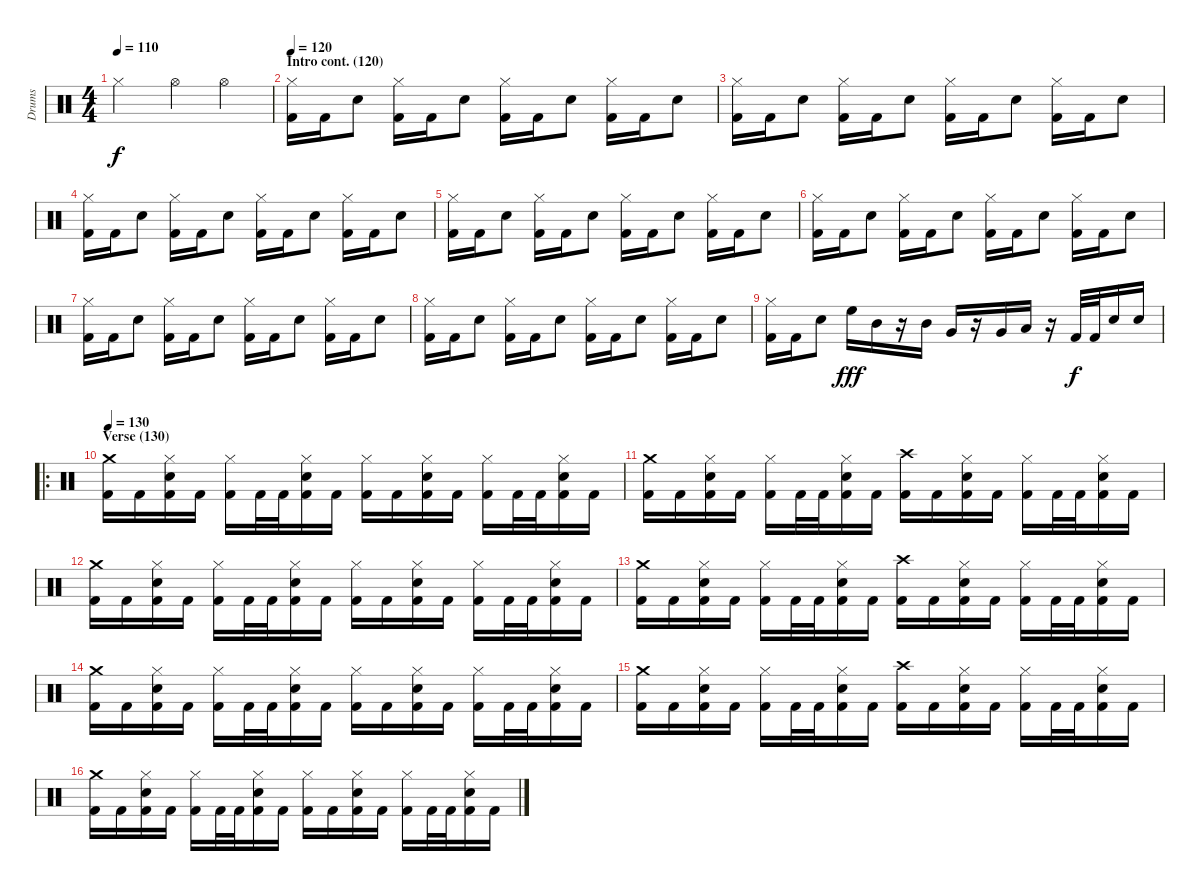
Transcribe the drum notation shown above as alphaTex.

\track ("Drums" "Drums") {instrument percussion}
\staff {score}
\articulation defaults
\ts (4 4)
\tempo 110
\clef neutral
\ks c "Hi-Hat (closed)".2{dy f} "Hi-Hat (open)".4 "Hi-Hat (open)".4
|
\section ("" "Intro cont. (120)")
\tempo 120
("Hi-Hat (closed)" "Kick (hit) 2").16 "Kick (hit) 2".16 "Electric Snare (hit)".8 ("Hi-Hat (closed)" "Kick (hit) 2").16 "Kick (hit) 2".16 "Electric Snare (hit)".8 ("Hi-Hat (closed)" "Kick (hit) 2").16 "Kick (hit) 2".16 "Electric Snare (hit)".8 ("Hi-Hat (closed)" "Kick (hit) 2").16 "Kick (hit) 2".16 "Electric Snare (hit)".8 |
("Hi-Hat (closed)" "Kick (hit) 2").16 "Kick (hit) 2".16 "Electric Snare (hit)".8 ("Hi-Hat (closed)" "Kick (hit) 2").16 "Kick (hit) 2".16 "Electric Snare (hit)".8 ("Hi-Hat (closed)" "Kick (hit) 2").16 "Kick (hit) 2".16 "Electric Snare (hit)".8 ("Hi-Hat (closed)" "Kick (hit) 2").16 "Kick (hit) 2".16 "Electric Snare (hit)".8 |
("Hi-Hat (closed)" "Kick (hit) 2").16 "Kick (hit) 2".16 "Electric Snare (hit)".8 ("Hi-Hat (closed)" "Kick (hit) 2").16 "Kick (hit) 2".16 "Electric Snare (hit)".8 ("Hi-Hat (closed)" "Kick (hit) 2").16 "Kick (hit) 2".16 "Electric Snare (hit)".8 ("Hi-Hat (closed)" "Kick (hit) 2").16 "Kick (hit) 2".16 "Electric Snare (hit)".8 |
("Hi-Hat (closed)" "Kick (hit) 2").16 "Kick (hit) 2".16 "Electric Snare (hit)".8 ("Hi-Hat (closed)" "Kick (hit) 2").16 "Kick (hit) 2".16 "Electric Snare (hit)".8 ("Hi-Hat (closed)" "Kick (hit) 2").16 "Kick (hit) 2".16 "Electric Snare (hit)".8 ("Hi-Hat (closed)" "Kick (hit) 2").16 "Kick (hit) 2".16 "Electric Snare (hit)".8 |
("Hi-Hat (closed)" "Kick (hit) 2").16 "Kick (hit) 2".16 "Electric Snare (hit)".8 ("Hi-Hat (closed)" "Kick (hit) 2").16 "Kick (hit) 2".16 "Electric Snare (hit)".8 ("Hi-Hat (closed)" "Kick (hit) 2").16 "Kick (hit) 2".16 "Electric Snare (hit)".8 ("Hi-Hat (closed)" "Kick (hit) 2").16 "Kick (hit) 2".16 "Electric Snare (hit)".8 |
("Hi-Hat (closed)" "Kick (hit) 2").16 "Kick (hit) 2".16 "Electric Snare (hit)".8 ("Hi-Hat (closed)" "Kick (hit) 2").16 "Kick (hit) 2".16 "Electric Snare (hit)".8 ("Hi-Hat (closed)" "Kick (hit) 2").16 "Kick (hit) 2".16 "Electric Snare (hit)".8 ("Hi-Hat (closed)" "Kick (hit) 2").16 "Kick (hit) 2".16 "Electric Snare (hit)".8 |
("Hi-Hat (closed)" "Kick (hit) 2").16 "Kick (hit) 2".16 "Electric Snare (hit)".8 ("Hi-Hat (closed)" "Kick (hit) 2").16 "Kick (hit) 2".16 "Electric Snare (hit)".8 ("Hi-Hat (closed)" "Kick (hit) 2").16 "Kick (hit) 2".16 "Electric Snare (hit)".8 ("Hi-Hat (closed)" "Kick (hit) 2").16 "Kick (hit) 2".16 "Electric Snare (hit)".8 |
("Hi-Hat (closed)" "Kick (hit) 2").16 "Kick (hit) 2".16 "Electric Snare (hit)".8 "High Floor Tom (hit)".16{dy fff} "Mid Tom (hit)".16 r.16 "Mid Tom (hit)".16 "Very Low Tom (hit)".16 r.16 "Very Low Tom (hit)".16 "Low Floor Tom (hit)".16 r.16 "Kick (hit) 2".32{dy f} "Kick (hit) 2".32 "Electric Snare (hit)".16 "Electric Snare (hit)".16 |
\ro
\section ("" "Verse (130)")
\tempo 130
("Crash medium (hit)" "Kick (hit) 2").16 "Kick (hit) 2".16 ("Hi-Hat (closed)" "Electric Snare (hit)" "Kick (hit) 2").16 "Kick (hit) 2".16 ("Hi-Hat (closed)" "Kick (hit) 2").16 "Kick (hit) 2".32 "Kick (hit) 2".32 ("Hi-Hat (closed)" "Electric Snare (hit)" "Kick (hit) 2").16 "Kick (hit) 2".16 ("Hi-Hat (closed)" "Kick (hit) 2").16 "Kick (hit) 2".16 ("Hi-Hat (closed)" "Electric Snare (hit)" "Kick (hit) 2").16 "Kick (hit) 2".16 ("Hi-Hat (closed)" "Kick (hit) 2").16 "Kick (hit) 2".32 "Kick (hit) 2".32 ("Hi-Hat (closed)" "Electric Snare (hit)" "Kick (hit) 2").16 "Kick (hit) 2".16 |
("Crash medium (hit)" "Kick (hit) 2").16 "Kick (hit) 2".16 ("Hi-Hat (closed)" "Electric Snare (hit)" "Kick (hit) 2").16 "Kick (hit) 2".16 ("Hi-Hat (closed)" "Kick (hit) 2").16 "Kick (hit) 2".32 "Kick (hit) 2".32 ("Hi-Hat (closed)" "Electric Snare (hit)" "Kick (hit) 2").16 "Kick (hit) 2".16 ("Crash high (hit)" "Kick (hit) 2").16 "Kick (hit) 2".16 ("Hi-Hat (closed)" "Electric Snare (hit)" "Kick (hit) 2").16 "Kick (hit) 2".16 ("Hi-Hat (closed)" "Kick (hit) 2").16 "Kick (hit) 2".32 "Kick (hit) 2".32 ("Hi-Hat (closed)" "Electric Snare (hit)" "Kick (hit) 2").16 "Kick (hit) 2".16 |
("Crash medium (hit)" "Kick (hit) 2").16 "Kick (hit) 2".16 ("Hi-Hat (closed)" "Electric Snare (hit)" "Kick (hit) 2").16 "Kick (hit) 2".16 ("Hi-Hat (closed)" "Kick (hit) 2").16 "Kick (hit) 2".32 "Kick (hit) 2".32 ("Hi-Hat (closed)" "Electric Snare (hit)" "Kick (hit) 2").16 "Kick (hit) 2".16 ("Hi-Hat (closed)" "Kick (hit) 2").16 "Kick (hit) 2".16 ("Hi-Hat (closed)" "Electric Snare (hit)" "Kick (hit) 2").16 "Kick (hit) 2".16 ("Hi-Hat (closed)" "Kick (hit) 2").16 "Kick (hit) 2".32 "Kick (hit) 2".32 ("Hi-Hat (closed)" "Electric Snare (hit)" "Kick (hit) 2").16 "Kick (hit) 2".16 |
("Crash medium (hit)" "Kick (hit) 2").16 "Kick (hit) 2".16 ("Hi-Hat (closed)" "Electric Snare (hit)" "Kick (hit) 2").16 "Kick (hit) 2".16 ("Hi-Hat (closed)" "Kick (hit) 2").16 "Kick (hit) 2".32 "Kick (hit) 2".32 ("Hi-Hat (closed)" "Electric Snare (hit)" "Kick (hit) 2").16 "Kick (hit) 2".16 ("Crash high (hit)" "Kick (hit) 2").16 "Kick (hit) 2".16 ("Hi-Hat (closed)" "Electric Snare (hit)" "Kick (hit) 2").16 "Kick (hit) 2".16 ("Hi-Hat (closed)" "Kick (hit) 2").16 "Kick (hit) 2".32 "Kick (hit) 2".32 ("Hi-Hat (closed)" "Electric Snare (hit)" "Kick (hit) 2").16 "Kick (hit) 2".16 |
("Crash medium (hit)" "Kick (hit) 2").16 "Kick (hit) 2".16 ("Hi-Hat (closed)" "Electric Snare (hit)" "Kick (hit) 2").16 "Kick (hit) 2".16 ("Hi-Hat (closed)" "Kick (hit) 2").16 "Kick (hit) 2".32 "Kick (hit) 2".32 ("Hi-Hat (closed)" "Electric Snare (hit)" "Kick (hit) 2").16 "Kick (hit) 2".16 ("Hi-Hat (closed)" "Kick (hit) 2").16 "Kick (hit) 2".16 ("Hi-Hat (closed)" "Electric Snare (hit)" "Kick (hit) 2").16 "Kick (hit) 2".16 ("Hi-Hat (closed)" "Kick (hit) 2").16 "Kick (hit) 2".32 "Kick (hit) 2".32 ("Hi-Hat (closed)" "Electric Snare (hit)" "Kick (hit) 2").16 "Kick (hit) 2".16 |
("Crash medium (hit)" "Kick (hit) 2").16 "Kick (hit) 2".16 ("Hi-Hat (closed)" "Electric Snare (hit)" "Kick (hit) 2").16 "Kick (hit) 2".16 ("Hi-Hat (closed)" "Kick (hit) 2").16 "Kick (hit) 2".32 "Kick (hit) 2".32 ("Hi-Hat (closed)" "Electric Snare (hit)" "Kick (hit) 2").16 "Kick (hit) 2".16 ("Crash high (hit)" "Kick (hit) 2").16 "Kick (hit) 2".16 ("Hi-Hat (closed)" "Electric Snare (hit)" "Kick (hit) 2").16 "Kick (hit) 2".16 ("Hi-Hat (closed)" "Kick (hit) 2").16 "Kick (hit) 2".32 "Kick (hit) 2".32 ("Hi-Hat (closed)" "Electric Snare (hit)" "Kick (hit) 2").16 "Kick (hit) 2".16 |
("Crash medium (hit)" "Kick (hit) 2").16 "Kick (hit) 2".16 ("Hi-Hat (closed)" "Electric Snare (hit)" "Kick (hit) 2").16 "Kick (hit) 2".16 ("Hi-Hat (closed)" "Kick (hit) 2").16 "Kick (hit) 2".32 "Kick (hit) 2".32 ("Hi-Hat (closed)" "Electric Snare (hit)" "Kick (hit) 2").16 "Kick (hit) 2".16 ("Hi-Hat (closed)" "Kick (hit) 2").16 "Kick (hit) 2".16 ("Hi-Hat (closed)" "Electric Snare (hit)" "Kick (hit) 2").16 "Kick (hit) 2".16 ("Hi-Hat (closed)" "Kick (hit) 2").16 "Kick (hit) 2".32 "Kick (hit) 2".32 ("Hi-Hat (closed)" "Electric Snare (hit)" "Kick (hit) 2").16 "Kick (hit) 2".16
